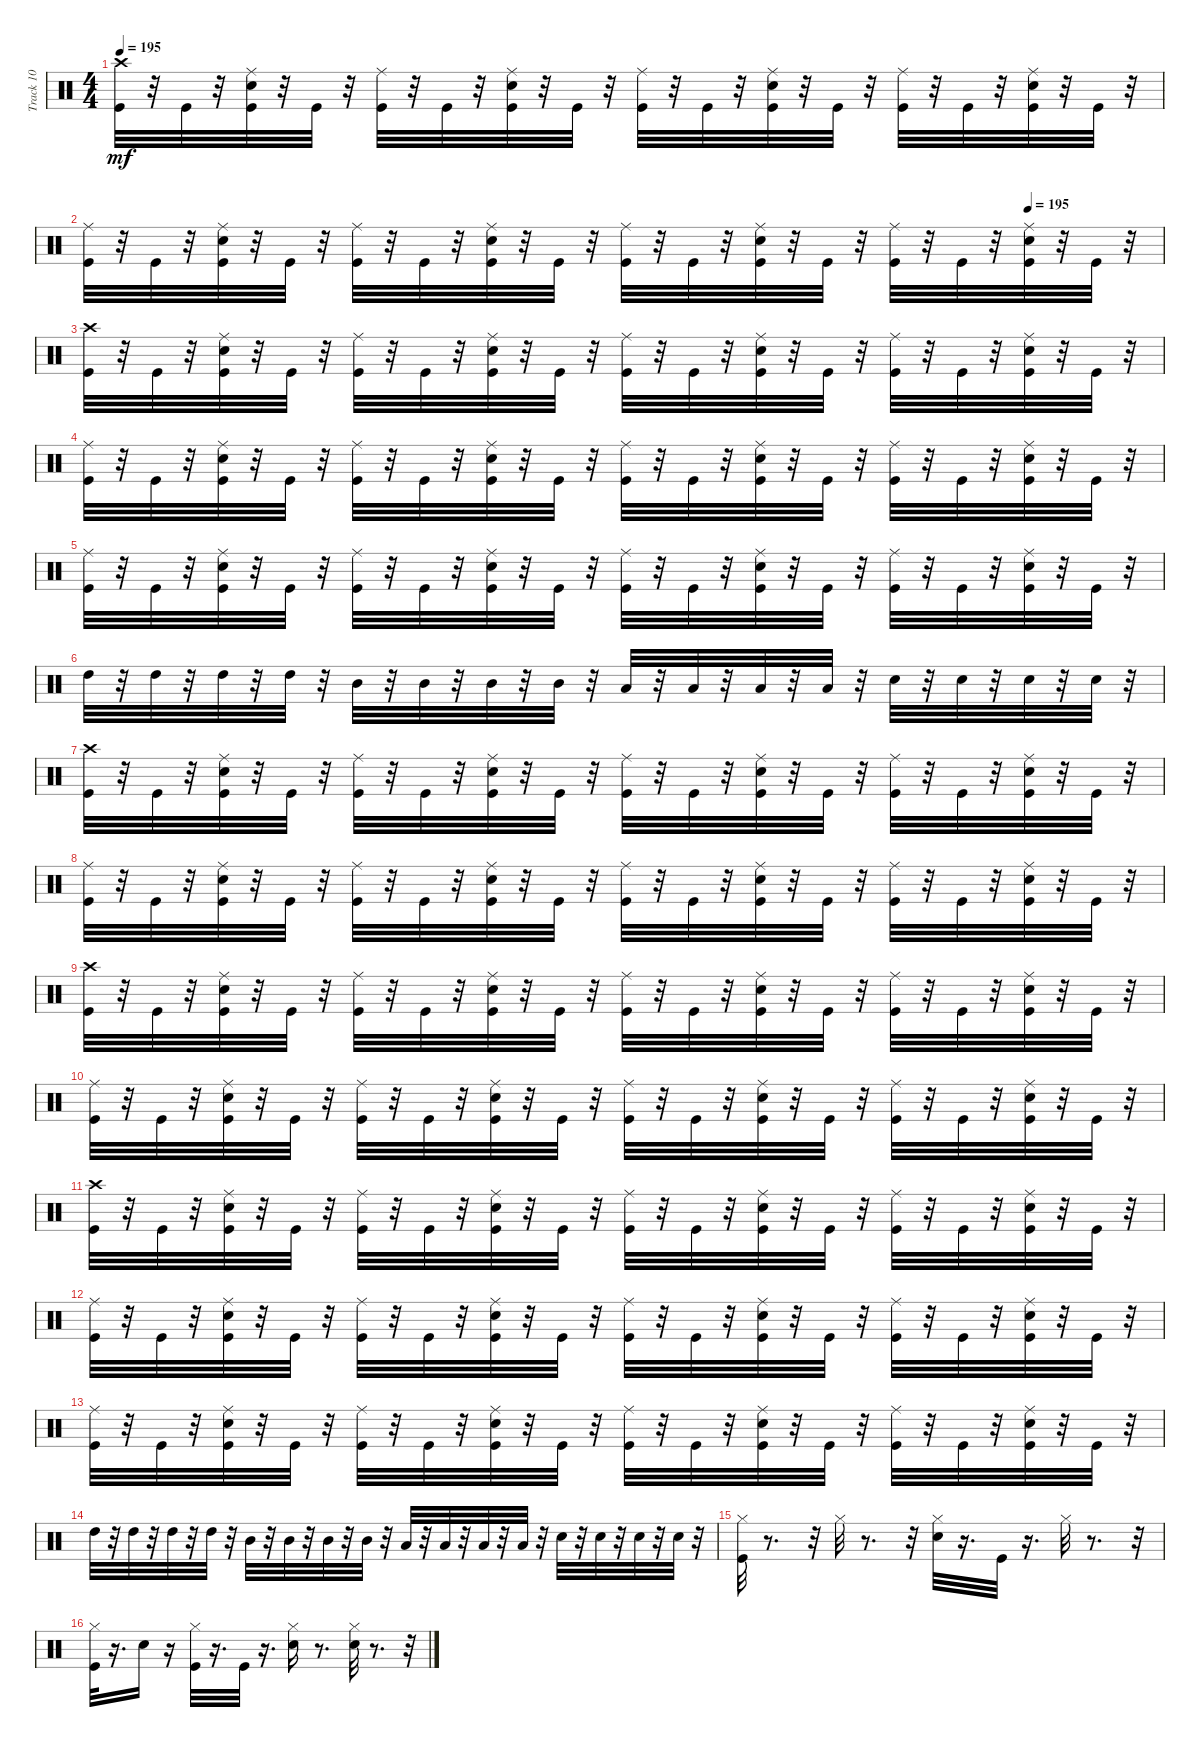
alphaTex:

\track ("Track 10" "Track 10") {instrument percussion}
\staff {score}
\articulation defaults
\ts (4 4)
\tempo 195
\clef neutral
\ks c
("Crash high (hit)" "Kick (hit)").32{dy mf} r.32 "Kick (hit)".32 r.32 ("Electric Snare (hit)" "Kick (hit)" "Ride (middle)").32 r.32 "Kick (hit)".32 r.32 ("Ride (middle)" "Kick (hit)").32 r.32 "Kick (hit)".32 r.32 ("Ride (middle)" "Electric Snare (hit)" "Kick (hit)").32 r.32 "Kick (hit)".32 r.32 ("Ride (middle)" "Kick (hit)").32 r.32 "Kick (hit)".32 r.32 ("Ride (middle)" "Kick (hit)" "Electric Snare (hit)").32 r.32 "Kick (hit)".32 r.32 ("Ride (middle)" "Kick (hit)").32 r.32 "Kick (hit)".32 r.32 ("Ride (middle)" "Electric Snare (hit)" "Kick (hit)").32 r.32 "Kick (hit)".32 r.32 |
\tempo (195 0.875)
("Ride (middle)" "Kick (hit)").32 r.32 "Kick (hit)".32 r.32 ("Electric Snare (hit)" "Kick (hit)" "Ride (middle)").32 r.32 "Kick (hit)".32 r.32 ("Ride (middle)" "Kick (hit)").32 r.32 "Kick (hit)".32 r.32 ("Ride (middle)" "Electric Snare (hit)" "Kick (hit)").32 r.32 "Kick (hit)".32 r.32 ("Ride (middle)" "Kick (hit)").32 r.32 "Kick (hit)".32 r.32 ("Ride (middle)" "Kick (hit)" "Electric Snare (hit)").32 r.32 "Kick (hit)".32 r.32 ("Ride (middle)" "Kick (hit)").32 r.32 "Kick (hit)".32 r.32 ("Ride (middle)" "Electric Snare (hit)" "Kick (hit)").32 r.32 "Kick (hit)".32 r.32 |
("Crash high (hit)" "Kick (hit)").32 r.32 "Kick (hit)".32 r.32 ("Electric Snare (hit)" "Kick (hit)" "Ride (middle)").32 r.32 "Kick (hit)".32 r.32 ("Ride (middle)" "Kick (hit)").32 r.32 "Kick (hit)".32 r.32 ("Ride (middle)" "Electric Snare (hit)" "Kick (hit)").32 r.32 "Kick (hit)".32 r.32 ("Ride (middle)" "Kick (hit)").32 r.32 "Kick (hit)".32 r.32 ("Ride (middle)" "Kick (hit)" "Electric Snare (hit)").32 r.32 "Kick (hit)".32 r.32 ("Ride (middle)" "Kick (hit)").32 r.32 "Kick (hit)".32 r.32 ("Ride (middle)" "Electric Snare (hit)" "Kick (hit)").32 r.32 "Kick (hit)".32 r.32 |
("Ride (middle)" "Kick (hit)").32 r.32 "Kick (hit)".32 r.32 ("Electric Snare (hit)" "Kick (hit)" "Ride (middle)").32 r.32 "Kick (hit)".32 r.32 ("Ride (middle)" "Kick (hit)").32 r.32 "Kick (hit)".32 r.32 ("Ride (middle)" "Electric Snare (hit)" "Kick (hit)").32 r.32 "Kick (hit)".32 r.32 ("Ride (middle)" "Kick (hit)").32 r.32 "Kick (hit)".32 r.32 ("Ride (middle)" "Kick (hit)" "Electric Snare (hit)").32 r.32 "Kick (hit)".32 r.32 ("Ride (middle)" "Kick (hit)").32 r.32 "Kick (hit)".32 r.32 ("Ride (middle)" "Electric Snare (hit)" "Kick (hit)").32 r.32 "Kick (hit)".32 r.32 |
("Ride (middle)" "Kick (hit)").32 r.32 "Kick (hit)".32 r.32 ("Electric Snare (hit)" "Kick (hit)" "Ride (middle)").32 r.32 "Kick (hit)".32 r.32 ("Ride (middle)" "Kick (hit)").32 r.32 "Kick (hit)".32 r.32 ("Ride (middle)" "Electric Snare (hit)" "Kick (hit)").32 r.32 "Kick (hit)".32 r.32 ("Ride (middle)" "Kick (hit)").32 r.32 "Kick (hit)".32 r.32 ("Ride (middle)" "Kick (hit)" "Electric Snare (hit)").32 r.32 "Kick (hit)".32 r.32 ("Ride (middle)" "Kick (hit)").32 r.32 "Kick (hit)".32 r.32 ("Ride (middle)" "Electric Snare (hit)" "Kick (hit)").32 r.32 "Kick (hit)".32 r.32 |
"High Tom (hit)".32 r.32 "High Tom (hit)".32 r.32 "High Tom (hit)".32 r.32 "High Tom (hit)".32 r.32 "Mid Tom (hit)".32 r.32 "Mid Tom (hit)".32 r.32 "Mid Tom (hit)".32 r.32 "Mid Tom (hit)".32 r.32 "Low Tom (hit)".32 r.32 "Low Tom (hit)".32 r.32 "Low Tom (hit)".32 r.32 "Low Tom (hit)".32 r.32 "Electric Snare (hit)".32 r.32 "Electric Snare (hit)".32 r.32 "Electric Snare (hit)".32 r.32 "Electric Snare (hit)".32 r.32 |
("Crash high (hit)" "Kick (hit)").32 r.32 "Kick (hit)".32 r.32 ("Electric Snare (hit)" "Kick (hit)" "Ride (middle)").32 r.32 "Kick (hit)".32 r.32 ("Ride (middle)" "Kick (hit)").32 r.32 "Kick (hit)".32 r.32 ("Ride (middle)" "Electric Snare (hit)" "Kick (hit)").32 r.32 "Kick (hit)".32 r.32 ("Ride (middle)" "Kick (hit)").32 r.32 "Kick (hit)".32 r.32 ("Ride (middle)" "Kick (hit)" "Electric Snare (hit)").32 r.32 "Kick (hit)".32 r.32 ("Ride (middle)" "Kick (hit)").32 r.32 "Kick (hit)".32 r.32 ("Ride (middle)" "Electric Snare (hit)" "Kick (hit)").32 r.32 "Kick (hit)".32 r.32 |
("Ride (middle)" "Kick (hit)").32 r.32 "Kick (hit)".32 r.32 ("Electric Snare (hit)" "Kick (hit)" "Ride (middle)").32 r.32 "Kick (hit)".32 r.32 ("Ride (middle)" "Kick (hit)").32 r.32 "Kick (hit)".32 r.32 ("Ride (middle)" "Electric Snare (hit)" "Kick (hit)").32 r.32 "Kick (hit)".32 r.32 ("Ride (middle)" "Kick (hit)").32 r.32 "Kick (hit)".32 r.32 ("Ride (middle)" "Kick (hit)" "Electric Snare (hit)").32 r.32 "Kick (hit)".32 r.32 ("Ride (middle)" "Kick (hit)").32 r.32 "Kick (hit)".32 r.32 ("Ride (middle)" "Electric Snare (hit)" "Kick (hit)").32 r.32 "Kick (hit)".32 r.32 |
("Crash high (hit)" "Kick (hit)").32 r.32 "Kick (hit)".32 r.32 ("Electric Snare (hit)" "Kick (hit)" "Ride (middle)").32 r.32 "Kick (hit)".32 r.32 ("Ride (middle)" "Kick (hit)").32 r.32 "Kick (hit)".32 r.32 ("Ride (middle)" "Electric Snare (hit)" "Kick (hit)").32 r.32 "Kick (hit)".32 r.32 ("Ride (middle)" "Kick (hit)").32 r.32 "Kick (hit)".32 r.32 ("Ride (middle)" "Kick (hit)" "Electric Snare (hit)").32 r.32 "Kick (hit)".32 r.32 ("Ride (middle)" "Kick (hit)").32 r.32 "Kick (hit)".32 r.32 ("Ride (middle)" "Electric Snare (hit)" "Kick (hit)").32 r.32 "Kick (hit)".32 r.32 |
("Ride (middle)" "Kick (hit)").32 r.32 "Kick (hit)".32 r.32 ("Electric Snare (hit)" "Kick (hit)" "Ride (middle)").32 r.32 "Kick (hit)".32 r.32 ("Ride (middle)" "Kick (hit)").32 r.32 "Kick (hit)".32 r.32 ("Ride (middle)" "Electric Snare (hit)" "Kick (hit)").32 r.32 "Kick (hit)".32 r.32 ("Ride (middle)" "Kick (hit)").32 r.32 "Kick (hit)".32 r.32 ("Ride (middle)" "Kick (hit)" "Electric Snare (hit)").32 r.32 "Kick (hit)".32 r.32 ("Ride (middle)" "Kick (hit)").32 r.32 "Kick (hit)".32 r.32 ("Ride (middle)" "Electric Snare (hit)" "Kick (hit)").32 r.32 "Kick (hit)".32 r.32 |
("Crash high (hit)" "Kick (hit)").32 r.32 "Kick (hit)".32 r.32 ("Electric Snare (hit)" "Kick (hit)" "Ride (middle)").32 r.32 "Kick (hit)".32 r.32 ("Ride (middle)" "Kick (hit)").32 r.32 "Kick (hit)".32 r.32 ("Ride (middle)" "Electric Snare (hit)" "Kick (hit)").32 r.32 "Kick (hit)".32 r.32 ("Ride (middle)" "Kick (hit)").32 r.32 "Kick (hit)".32 r.32 ("Ride (middle)" "Kick (hit)" "Electric Snare (hit)").32 r.32 "Kick (hit)".32 r.32 ("Ride (middle)" "Kick (hit)").32 r.32 "Kick (hit)".32 r.32 ("Ride (middle)" "Electric Snare (hit)" "Kick (hit)").32 r.32 "Kick (hit)".32 r.32 |
("Ride (middle)" "Kick (hit)").32 r.32 "Kick (hit)".32 r.32 ("Electric Snare (hit)" "Kick (hit)" "Ride (middle)").32 r.32 "Kick (hit)".32 r.32 ("Ride (middle)" "Kick (hit)").32 r.32 "Kick (hit)".32 r.32 ("Ride (middle)" "Electric Snare (hit)" "Kick (hit)").32 r.32 "Kick (hit)".32 r.32 ("Ride (middle)" "Kick (hit)").32 r.32 "Kick (hit)".32 r.32 ("Ride (middle)" "Kick (hit)" "Electric Snare (hit)").32 r.32 "Kick (hit)".32 r.32 ("Ride (middle)" "Kick (hit)").32 r.32 "Kick (hit)".32 r.32 ("Ride (middle)" "Electric Snare (hit)" "Kick (hit)").32 r.32 "Kick (hit)".32 r.32 |
("Ride (middle)" "Kick (hit)").32 r.32 "Kick (hit)".32 r.32 ("Electric Snare (hit)" "Kick (hit)" "Ride (middle)").32 r.32 "Kick (hit)".32 r.32 ("Ride (middle)" "Kick (hit)").32 r.32 "Kick (hit)".32 r.32 ("Ride (middle)" "Electric Snare (hit)" "Kick (hit)").32 r.32 "Kick (hit)".32 r.32 ("Ride (middle)" "Kick (hit)").32 r.32 "Kick (hit)".32 r.32 ("Ride (middle)" "Kick (hit)" "Electric Snare (hit)").32 r.32 "Kick (hit)".32 r.32 ("Ride (middle)" "Kick (hit)").32 r.32 "Kick (hit)".32 r.32 ("Ride (middle)" "Electric Snare (hit)" "Kick (hit)").32 r.32 "Kick (hit)".32 r.32 |
"High Tom (hit)".32 r.32 "High Tom (hit)".32 r.32 "High Tom (hit)".32 r.32 "High Tom (hit)".32 r.32 "Mid Tom (hit)".32 r.32 "Mid Tom (hit)".32 r.32 "Mid Tom (hit)".32 r.32 "Mid Tom (hit)".32 r.32 "Low Tom (hit)".32 r.32 "Low Tom (hit)".32 r.32 "Low Tom (hit)".32 r.32 "Low Tom (hit)".32 r.32 "Electric Snare (hit)".32 r.32 "Electric Snare (hit)".32 r.32 "Electric Snare (hit)".32 r.32 "Electric Snare (hit)".32 r.32 |
("Kick (hit)" "Hi-Hat (closed)").32 r.8{d} r.32 "Hi-Hat (closed)".32 r.8{d} r.32 ("Hi-Hat (closed)" "Electric Snare (hit)").32 r.16{d} "Kick (hit)".32 r.16{d} "Hi-Hat (closed)".32 r.8{d} r.32 |
("Hi-Hat (closed)" "Kick (hit)").32 r.16{d} "Electric Snare (hit)".16 r.16 ("Kick (hit)" "Hi-Hat (closed)").32 r.16{d} "Kick (hit)".32 r.16{d} ("Hi-Hat (closed)" "Electric Snare (hit)").16 r.8{d} ("Electric Snare (hit)" "Hi-Hat (closed)").32 r.8{d} r.32
